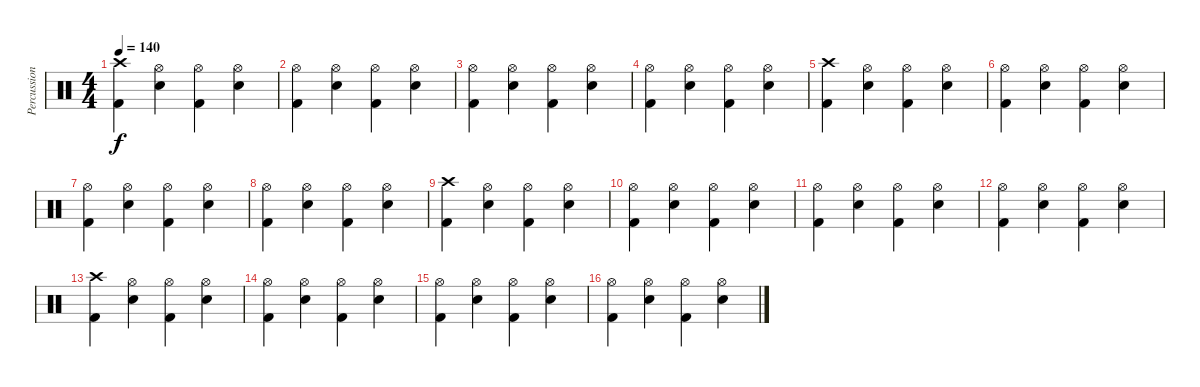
\track ("Percussions" "Percussion") {instrument percussion}
\staff {score}
\articulation defaults
\ts (4 4)
\tempo 140
\clef neutral
\ks c
("Crash high (hit)" "Kick (hit) 2").4{dy f} ("Hi-Hat (open)" "Snare (hit) 2").4 ("Hi-Hat (open)" "Kick (hit) 2").4 ("Hi-Hat (open)" "Snare (hit) 2").4 |
("Hi-Hat (open)" "Kick (hit) 2").4 ("Hi-Hat (open)" "Snare (hit) 2").4 ("Hi-Hat (open)" "Kick (hit) 2").4 ("Hi-Hat (open)" "Snare (hit) 2").4 |
("Hi-Hat (open)" "Kick (hit) 2").4 ("Hi-Hat (open)" "Snare (hit) 2").4 ("Hi-Hat (open)" "Kick (hit) 2").4 ("Hi-Hat (open)" "Snare (hit) 2").4 |
("Hi-Hat (open)" "Kick (hit) 2").4 ("Hi-Hat (open)" "Snare (hit) 2").4 ("Hi-Hat (open)" "Kick (hit) 2").4 ("Hi-Hat (open)" "Snare (hit) 2").4 |
("Crash high (hit)" "Kick (hit) 2").4 ("Hi-Hat (open)" "Snare (hit) 2").4 ("Hi-Hat (open)" "Kick (hit) 2").4 ("Hi-Hat (open)" "Snare (hit) 2").4 |
("Hi-Hat (open)" "Kick (hit) 2").4 ("Hi-Hat (open)" "Snare (hit) 2").4 ("Hi-Hat (open)" "Kick (hit) 2").4 ("Hi-Hat (open)" "Snare (hit) 2").4 |
("Hi-Hat (open)" "Kick (hit) 2").4 ("Hi-Hat (open)" "Snare (hit) 2").4 ("Hi-Hat (open)" "Kick (hit) 2").4 ("Hi-Hat (open)" "Snare (hit) 2").4 |
("Hi-Hat (open)" "Kick (hit) 2").4 ("Hi-Hat (open)" "Snare (hit) 2").4 ("Hi-Hat (open)" "Kick (hit) 2").4 ("Hi-Hat (open)" "Snare (hit) 2").4 |
("Crash high (hit)" "Kick (hit) 2").4 ("Hi-Hat (open)" "Snare (hit) 2").4 ("Hi-Hat (open)" "Kick (hit) 2").4 ("Hi-Hat (open)" "Snare (hit) 2").4 |
("Hi-Hat (open)" "Kick (hit) 2").4 ("Hi-Hat (open)" "Snare (hit) 2").4 ("Hi-Hat (open)" "Kick (hit) 2").4 ("Hi-Hat (open)" "Snare (hit) 2").4 |
("Hi-Hat (open)" "Kick (hit) 2").4 ("Hi-Hat (open)" "Snare (hit) 2").4 ("Hi-Hat (open)" "Kick (hit) 2").4 ("Hi-Hat (open)" "Snare (hit) 2").4 |
("Hi-Hat (open)" "Kick (hit) 2").4 ("Hi-Hat (open)" "Snare (hit) 2").4 ("Hi-Hat (open)" "Kick (hit) 2").4 ("Hi-Hat (open)" "Snare (hit) 2").4 |
("Crash high (hit)" "Kick (hit) 2").4 ("Hi-Hat (open)" "Snare (hit) 2").4 ("Hi-Hat (open)" "Kick (hit) 2").4 ("Hi-Hat (open)" "Snare (hit) 2").4 |
("Hi-Hat (open)" "Kick (hit) 2").4 ("Hi-Hat (open)" "Snare (hit) 2").4 ("Hi-Hat (open)" "Kick (hit) 2").4 ("Hi-Hat (open)" "Snare (hit) 2").4 |
("Hi-Hat (open)" "Kick (hit) 2").4 ("Hi-Hat (open)" "Snare (hit) 2").4 ("Hi-Hat (open)" "Kick (hit) 2").4 ("Hi-Hat (open)" "Snare (hit) 2").4 |
("Hi-Hat (open)" "Kick (hit) 2").4 ("Hi-Hat (open)" "Snare (hit) 2").4 ("Hi-Hat (open)" "Kick (hit) 2").4 ("Hi-Hat (open)" "Snare (hit) 2").4
